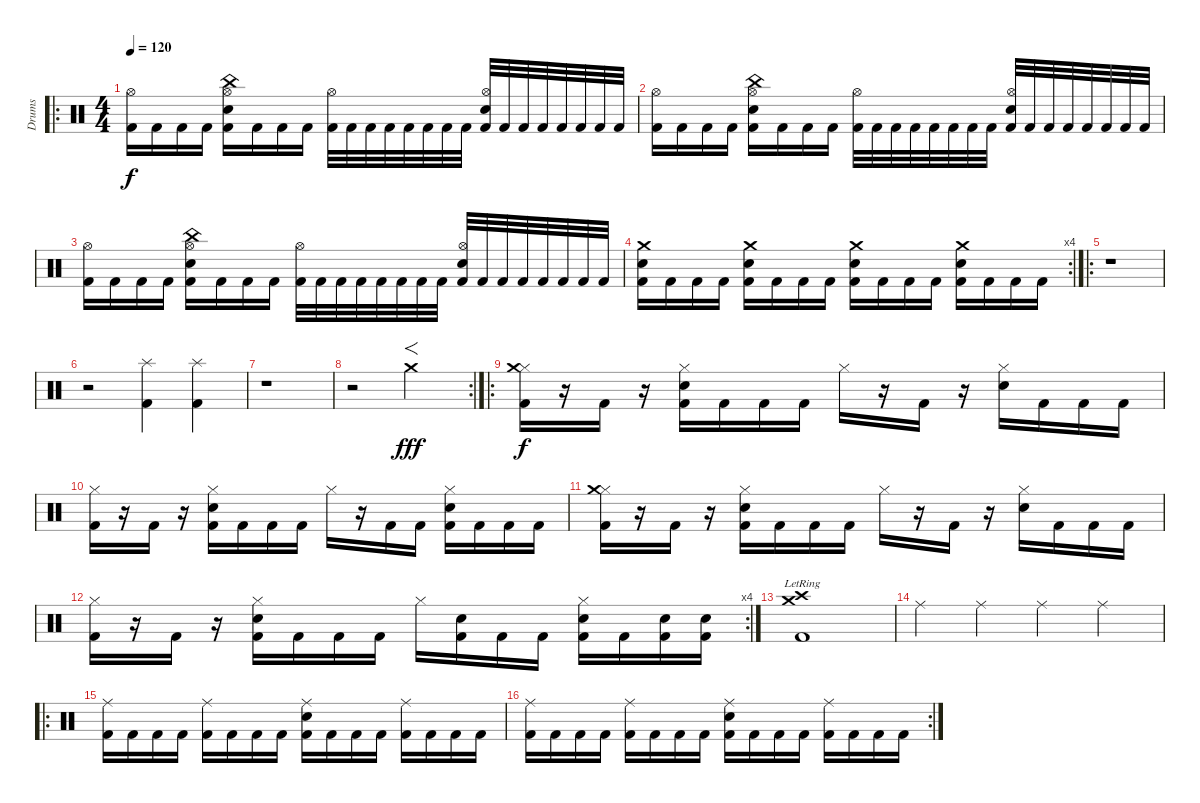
\track ("Drums" "Drums") {instrument percussion}
\staff {score}
\articulation defaults
\ro
\ts (4 4)
\tempo 120
\clef neutral
\ks c
("Kick (hit) 2" "Hi-Hat (open)").16{dy f} "Kick (hit) 2".16 "Kick (hit) 2".16 "Kick (hit) 2".16 ("Kick (hit) 2" "Hi-Hat (open)" "Snare (hit) 2" "China (hit)").16 "Kick (hit) 2".16 "Kick (hit) 2".16 "Kick (hit) 2".16 ("Kick (hit) 2" "Hi-Hat (open)").32 "Kick (hit) 2".32 "Kick (hit) 2".32 "Kick (hit) 2".32 "Kick (hit) 2".32 "Kick (hit) 2".32 "Kick (hit) 2".32 "Kick (hit) 2".32 ("Kick (hit) 2" "Hi-Hat (open)" "Snare (hit) 2").32 "Kick (hit) 2".32 "Kick (hit) 2".32 "Kick (hit) 2".32 "Kick (hit) 2".32 "Kick (hit) 2".32 "Kick (hit) 2".32 "Kick (hit) 2".32 |
("Kick (hit) 2" "Hi-Hat (open)").16 "Kick (hit) 2".16 "Kick (hit) 2".16 "Kick (hit) 2".16 ("Kick (hit) 2" "Hi-Hat (open)" "Snare (hit) 2" "China (hit)").16 "Kick (hit) 2".16 "Kick (hit) 2".16 "Kick (hit) 2".16 ("Kick (hit) 2" "Hi-Hat (open)").32 "Kick (hit) 2".32 "Kick (hit) 2".32 "Kick (hit) 2".32 "Kick (hit) 2".32 "Kick (hit) 2".32 "Kick (hit) 2".32 "Kick (hit) 2".32 ("Kick (hit) 2" "Hi-Hat (open)" "Snare (hit) 2").32 "Kick (hit) 2".32 "Kick (hit) 2".32 "Kick (hit) 2".32 "Kick (hit) 2".32 "Kick (hit) 2".32 "Kick (hit) 2".32 "Kick (hit) 2".32 |
("Kick (hit) 2" "Hi-Hat (open)").16 "Kick (hit) 2".16 "Kick (hit) 2".16 "Kick (hit) 2".16 ("Kick (hit) 2" "Hi-Hat (open)" "Snare (hit) 2" "China (hit)").16 "Kick (hit) 2".16 "Kick (hit) 2".16 "Kick (hit) 2".16 ("Kick (hit) 2" "Hi-Hat (open)").32 "Kick (hit) 2".32 "Kick (hit) 2".32 "Kick (hit) 2".32 "Kick (hit) 2".32 "Kick (hit) 2".32 "Kick (hit) 2".32 "Kick (hit) 2".32 ("Kick (hit) 2" "Hi-Hat (open)" "Snare (hit) 2").32 "Kick (hit) 2".32 "Kick (hit) 2".32 "Kick (hit) 2".32 "Kick (hit) 2".32 "Kick (hit) 2".32 "Kick (hit) 2".32 "Kick (hit) 2".32 |
\rc 4
("Kick (hit) 2" "Snare (hit) 2" "Crash medium (hit)").16 "Kick (hit) 2".16 "Kick (hit) 2".16 "Kick (hit) 2".16 ("Kick (hit) 2" "Snare (hit) 2" "Crash medium (hit)").16 "Kick (hit) 2".16 "Kick (hit) 2".16 "Kick (hit) 2".16 ("Kick (hit) 2" "Snare (hit) 2" "Crash medium (hit)").16 "Kick (hit) 2".16 "Kick (hit) 2".16 "Kick (hit) 2".16 ("Kick (hit) 2" "Snare (hit) 2" "Crash medium (hit)").16 "Kick (hit) 2".16 "Kick (hit) 2".16 "Kick (hit) 2".16 |
\ro
r.1 |
r.2 ("Kick (hit) 2" "Splash (hit)").4{balance 0} ("Kick (hit) 2" "Splash (hit)").4{balance 0} |
r.1 |
\rc 2
r.2 "Crash medium (hit)".2{f dy fff volume 16} |
\ro
("Kick (hit) 2" "Hi-Hat (closed)" "Crash medium (hit)").16{dy f} r.16 "Kick (hit) 2".16 r.16 ("Kick (hit) 2" "Hi-Hat (closed)" "Snare (hit) 2").16 "Kick (hit) 2".16 "Kick (hit) 2".16 "Kick (hit) 2".16 "Hi-Hat (closed)".16 r.16 "Kick (hit) 2".16 r.16 ("Hi-Hat (closed)" "Snare (hit) 2").16 "Kick (hit) 2".16 "Kick (hit) 2".16 "Kick (hit) 2".16 |
("Kick (hit) 2" "Hi-Hat (closed)").16 r.16 "Kick (hit) 2".16 r.16 ("Kick (hit) 2" "Hi-Hat (closed)" "Snare (hit) 2").16 "Kick (hit) 2".16 "Kick (hit) 2".16 "Kick (hit) 2".16 "Hi-Hat (closed)".16 r.16 "Kick (hit) 2".16 "Kick (hit) 2".16 ("Kick (hit) 2" "Hi-Hat (closed)" "Snare (hit) 2").16 "Kick (hit) 2".16 "Kick (hit) 2".16 "Kick (hit) 2".16 |
("Kick (hit) 2" "Hi-Hat (closed)" "Crash medium (hit)").16 r.16 "Kick (hit) 2".16 r.16 ("Kick (hit) 2" "Hi-Hat (closed)" "Snare (hit) 2").16 "Kick (hit) 2".16 "Kick (hit) 2".16 "Kick (hit) 2".16 "Hi-Hat (closed)".16 r.16 "Kick (hit) 2".16 r.16 ("Hi-Hat (closed)" "Snare (hit) 2").16 "Kick (hit) 2".16 "Kick (hit) 2".16 "Kick (hit) 2".16 |
\rc 4
("Kick (hit) 2" "Hi-Hat (closed)").16 r.16 "Kick (hit) 2".16 r.16 ("Kick (hit) 2" "Hi-Hat (closed)" "Snare (hit) 2").16 "Kick (hit) 2".16 "Kick (hit) 2".16 "Kick (hit) 2".16 "Hi-Hat (closed)".16 ("Kick (hit) 2" "Snare (hit) 2").16 "Kick (hit) 2".16 "Kick (hit) 2".16 ("Kick (hit) 2" "Hi-Hat (closed)" "Snare (hit) 2").16 "Kick (hit) 2".16 ("Kick (hit) 2" "Snare (hit) 2").16 ("Kick (hit) 2" "Snare (hit) 2").16 |
("Kick (hit) 2"{lr} "Crash high (hit)"{lr} "Crash medium (hit)"{lr}).1 |
"Ride (middle)".4 "Ride (middle)".4 "Ride (middle)".4 "Ride (middle)".4 |
\ro
("Kick (hit) 2" "Ride (middle)").16 "Kick (hit) 2".16 "Kick (hit) 2".16 "Kick (hit) 2".16 ("Kick (hit) 2" "Ride (middle)").16 "Kick (hit) 2".16 "Kick (hit) 2".16 "Kick (hit) 2".16 ("Kick (hit) 2" "Ride (middle)" "Snare (hit) 2").16 "Kick (hit) 2".16 "Kick (hit) 2".16 "Kick (hit) 2".16 ("Kick (hit) 2" "Ride (middle)").16 "Kick (hit) 2".16 "Kick (hit) 2".16 "Kick (hit) 2".16 |
\rc 2
("Kick (hit) 2" "Ride (middle)").16 "Kick (hit) 2".16 "Kick (hit) 2".16 "Kick (hit) 2".16 ("Kick (hit) 2" "Ride (middle)").16 "Kick (hit) 2".16 "Kick (hit) 2".16 "Kick (hit) 2".16 ("Kick (hit) 2" "Ride (middle)" "Snare (hit) 2").16 "Kick (hit) 2".16 "Kick (hit) 2".16 "Kick (hit) 2".16 ("Kick (hit) 2" "Ride (middle)").16 "Kick (hit) 2".16 "Kick (hit) 2".16 "Kick (hit) 2".16
